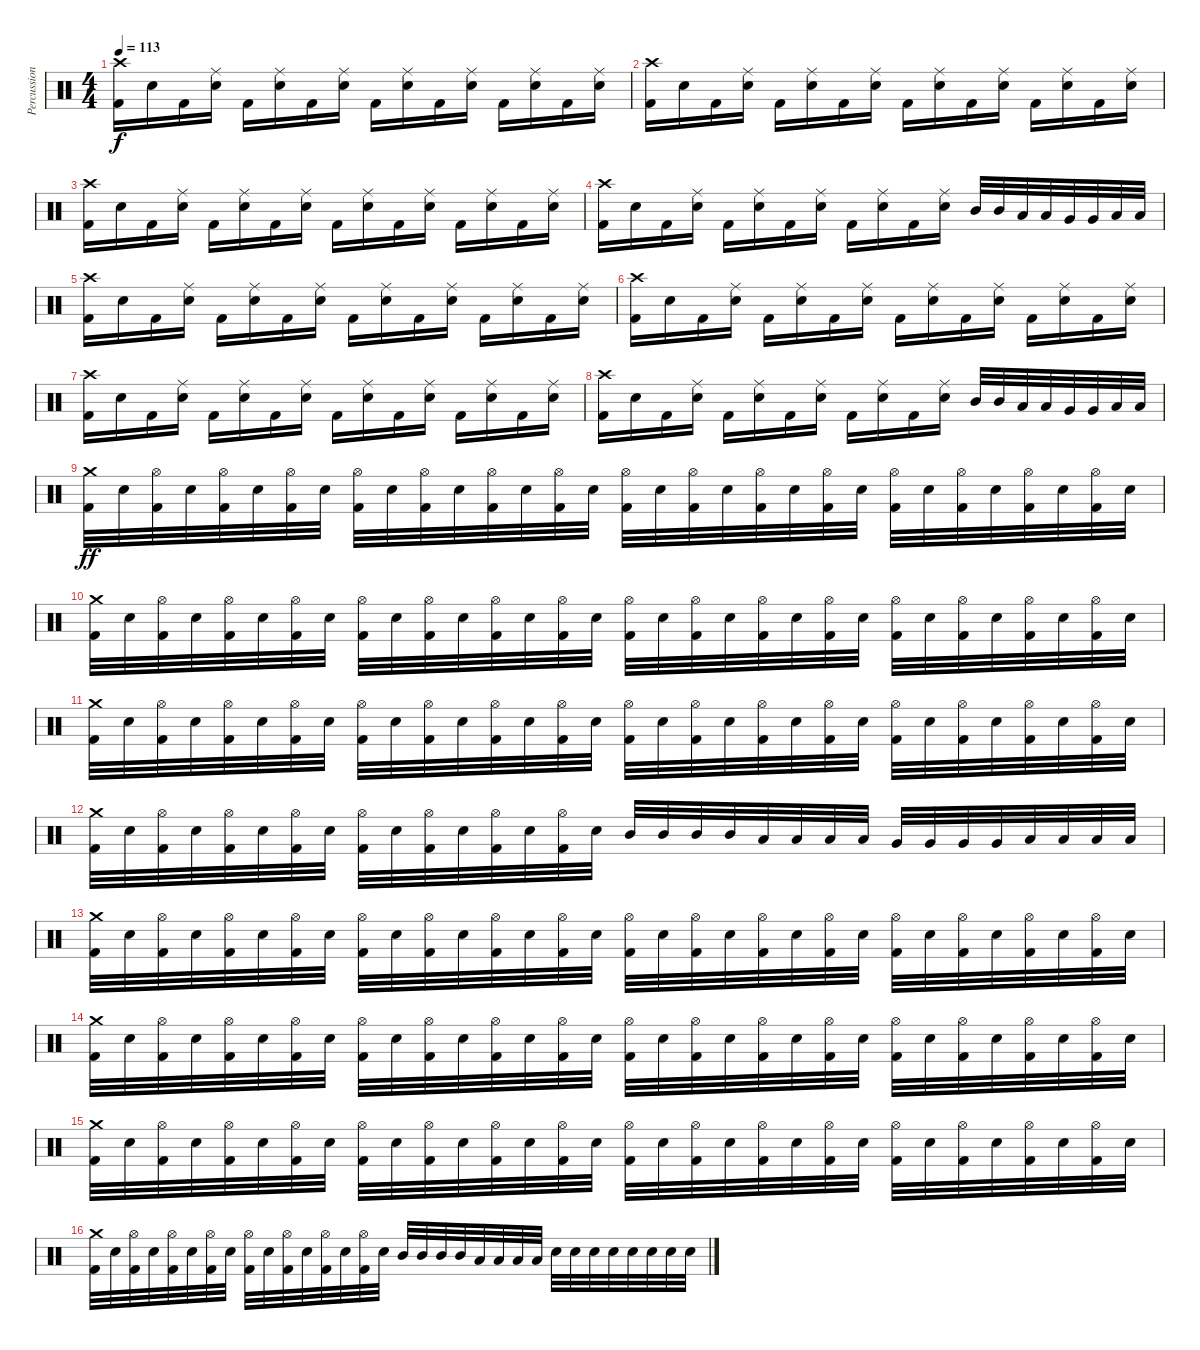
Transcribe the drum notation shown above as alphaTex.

\track ("Percussion" "Percussion") {instrument percussion}
\staff {score}
\articulation defaults
\ts (4 4)
\tempo 113
\clef neutral
\ks c
("Crash high (hit)" "Kick (hit) 2").16{dy f} "Electric Snare (hit)".16 "Kick (hit) 2".16 ("Ride (middle)" "Electric Snare (hit)").16 "Kick (hit) 2".16 ("Ride (middle)" "Electric Snare (hit)").16 "Kick (hit) 2".16 ("Ride (middle)" "Electric Snare (hit)").16 "Kick (hit) 2".16 ("Ride (middle)" "Electric Snare (hit)").16 "Kick (hit) 2".16 ("Ride (middle)" "Electric Snare (hit)").16 "Kick (hit) 2".16 ("Ride (middle)" "Electric Snare (hit)").16 "Kick (hit) 2".16 ("Ride (middle)" "Electric Snare (hit)").16 |
("Crash high (hit)" "Kick (hit) 2").16 "Electric Snare (hit)".16 "Kick (hit) 2".16 ("Ride (middle)" "Electric Snare (hit)").16 "Kick (hit) 2".16 ("Ride (middle)" "Electric Snare (hit)").16 "Kick (hit) 2".16 ("Ride (middle)" "Electric Snare (hit)").16 "Kick (hit) 2".16 ("Ride (middle)" "Electric Snare (hit)").16 "Kick (hit) 2".16 ("Ride (middle)" "Electric Snare (hit)").16 "Kick (hit) 2".16 ("Ride (middle)" "Electric Snare (hit)").16 "Kick (hit) 2".16 ("Ride (middle)" "Electric Snare (hit)").16 |
("Crash high (hit)" "Kick (hit) 2").16 "Electric Snare (hit)".16 "Kick (hit) 2".16 ("Ride (middle)" "Electric Snare (hit)").16 "Kick (hit) 2".16 ("Ride (middle)" "Electric Snare (hit)").16 "Kick (hit) 2".16 ("Ride (middle)" "Electric Snare (hit)").16 "Kick (hit) 2".16 ("Ride (middle)" "Electric Snare (hit)").16 "Kick (hit) 2".16 ("Ride (middle)" "Electric Snare (hit)").16 "Kick (hit) 2".16 ("Ride (middle)" "Electric Snare (hit)").16 "Kick (hit) 2".16 ("Ride (middle)" "Electric Snare (hit)").16 |
("Crash high (hit)" "Kick (hit) 2").16 "Electric Snare (hit)".16 "Kick (hit) 2".16 ("Ride (middle)" "Electric Snare (hit)").16 "Kick (hit) 2".16 ("Ride (middle)" "Electric Snare (hit)").16 "Kick (hit) 2".16 ("Ride (middle)" "Electric Snare (hit)").16 "Kick (hit) 2".16 ("Ride (middle)" "Electric Snare (hit)").16 "Kick (hit) 2".16 ("Ride (middle)" "Electric Snare (hit)").16 "Mid Tom (hit)".32 "Mid Tom (hit)".32 "Low Tom (hit)".32 "Low Tom (hit)".32 "Very Low Tom (hit)".32 "Very Low Tom (hit)".32 "Low Floor Tom (hit)".32 "Low Floor Tom (hit)".32 |
("Crash high (hit)" "Kick (hit) 2").16 "Electric Snare (hit)".16 "Kick (hit) 2".16 ("Ride (middle)" "Electric Snare (hit)").16 "Kick (hit) 2".16 ("Ride (middle)" "Electric Snare (hit)").16 "Kick (hit) 2".16 ("Ride (middle)" "Electric Snare (hit)").16 "Kick (hit) 2".16 ("Ride (middle)" "Electric Snare (hit)").16 "Kick (hit) 2".16 ("Ride (middle)" "Electric Snare (hit)").16 "Kick (hit) 2".16 ("Ride (middle)" "Electric Snare (hit)").16 "Kick (hit) 2".16 ("Ride (middle)" "Electric Snare (hit)").16 |
("Crash high (hit)" "Kick (hit) 2").16 "Electric Snare (hit)".16 "Kick (hit) 2".16 ("Ride (middle)" "Electric Snare (hit)").16 "Kick (hit) 2".16 ("Ride (middle)" "Electric Snare (hit)").16 "Kick (hit) 2".16 ("Ride (middle)" "Electric Snare (hit)").16 "Kick (hit) 2".16 ("Ride (middle)" "Electric Snare (hit)").16 "Kick (hit) 2".16 ("Ride (middle)" "Electric Snare (hit)").16 "Kick (hit) 2".16 ("Ride (middle)" "Electric Snare (hit)").16 "Kick (hit) 2".16 ("Ride (middle)" "Electric Snare (hit)").16 |
("Crash high (hit)" "Kick (hit) 2").16 "Electric Snare (hit)".16 "Kick (hit) 2".16 ("Ride (middle)" "Electric Snare (hit)").16 "Kick (hit) 2".16 ("Ride (middle)" "Electric Snare (hit)").16 "Kick (hit) 2".16 ("Ride (middle)" "Electric Snare (hit)").16 "Kick (hit) 2".16 ("Ride (middle)" "Electric Snare (hit)").16 "Kick (hit) 2".16 ("Ride (middle)" "Electric Snare (hit)").16 "Kick (hit) 2".16 ("Ride (middle)" "Electric Snare (hit)").16 "Kick (hit) 2".16 ("Ride (middle)" "Electric Snare (hit)").16 |
("Crash high (hit)" "Kick (hit) 2").16 "Electric Snare (hit)".16 "Kick (hit) 2".16 ("Ride (middle)" "Electric Snare (hit)").16 "Kick (hit) 2".16 ("Ride (middle)" "Electric Snare (hit)").16 "Kick (hit) 2".16 ("Ride (middle)" "Electric Snare (hit)").16 "Kick (hit) 2".16 ("Ride (middle)" "Electric Snare (hit)").16 "Kick (hit) 2".16 ("Ride (middle)" "Electric Snare (hit)").16 "Mid Tom (hit)".32 "Mid Tom (hit)".32 "Low Tom (hit)".32 "Low Tom (hit)".32 "Very Low Tom (hit)".32 "Very Low Tom (hit)".32 "Low Floor Tom (hit)".32 "Low Floor Tom (hit)".32 |
("Crash medium (hit)" "Kick (hit) 2").32{dy ff} "Electric Snare (hit)".32 ("Hi-Hat (open)" "Kick (hit) 2").32 "Electric Snare (hit)".32 ("Hi-Hat (open)" "Kick (hit) 2").32 "Electric Snare (hit)".32 ("Hi-Hat (open)" "Kick (hit) 2").32 "Electric Snare (hit)".32 ("Hi-Hat (open)" "Kick (hit) 2").32 "Electric Snare (hit)".32 ("Hi-Hat (open)" "Kick (hit) 2").32 "Electric Snare (hit)".32 ("Hi-Hat (open)" "Kick (hit) 2").32 "Electric Snare (hit)".32 ("Hi-Hat (open)" "Kick (hit) 2").32 "Electric Snare (hit)".32 ("Hi-Hat (open)" "Kick (hit) 2").32 "Electric Snare (hit)".32 ("Hi-Hat (open)" "Kick (hit) 2").32 "Electric Snare (hit)".32 ("Hi-Hat (open)" "Kick (hit) 2").32 "Electric Snare (hit)".32 ("Hi-Hat (open)" "Kick (hit) 2").32 "Electric Snare (hit)".32 ("Hi-Hat (open)" "Kick (hit) 2").32 "Electric Snare (hit)".32 ("Hi-Hat (open)" "Kick (hit) 2").32 "Electric Snare (hit)".32 ("Hi-Hat (open)" "Kick (hit) 2").32 "Electric Snare (hit)".32 ("Hi-Hat (open)" "Kick (hit) 2").32 "Electric Snare (hit)".32 |
("Crash medium (hit)" "Kick (hit) 2").32 "Electric Snare (hit)".32 ("Hi-Hat (open)" "Kick (hit) 2").32 "Electric Snare (hit)".32 ("Hi-Hat (open)" "Kick (hit) 2").32 "Electric Snare (hit)".32 ("Hi-Hat (open)" "Kick (hit) 2").32 "Electric Snare (hit)".32 ("Hi-Hat (open)" "Kick (hit) 2").32 "Electric Snare (hit)".32 ("Hi-Hat (open)" "Kick (hit) 2").32 "Electric Snare (hit)".32 ("Hi-Hat (open)" "Kick (hit) 2").32 "Electric Snare (hit)".32 ("Hi-Hat (open)" "Kick (hit) 2").32 "Electric Snare (hit)".32 ("Hi-Hat (open)" "Kick (hit) 2").32 "Electric Snare (hit)".32 ("Hi-Hat (open)" "Kick (hit) 2").32 "Electric Snare (hit)".32 ("Hi-Hat (open)" "Kick (hit) 2").32 "Electric Snare (hit)".32 ("Hi-Hat (open)" "Kick (hit) 2").32 "Electric Snare (hit)".32 ("Hi-Hat (open)" "Kick (hit) 2").32 "Electric Snare (hit)".32 ("Hi-Hat (open)" "Kick (hit) 2").32 "Electric Snare (hit)".32 ("Hi-Hat (open)" "Kick (hit) 2").32 "Electric Snare (hit)".32 ("Hi-Hat (open)" "Kick (hit) 2").32 "Electric Snare (hit)".32 |
("Crash medium (hit)" "Kick (hit) 2").32 "Electric Snare (hit)".32 ("Hi-Hat (open)" "Kick (hit) 2").32 "Electric Snare (hit)".32 ("Hi-Hat (open)" "Kick (hit) 2").32 "Electric Snare (hit)".32 ("Hi-Hat (open)" "Kick (hit) 2").32 "Electric Snare (hit)".32 ("Hi-Hat (open)" "Kick (hit) 2").32 "Electric Snare (hit)".32 ("Hi-Hat (open)" "Kick (hit) 2").32 "Electric Snare (hit)".32 ("Hi-Hat (open)" "Kick (hit) 2").32 "Electric Snare (hit)".32 ("Hi-Hat (open)" "Kick (hit) 2").32 "Electric Snare (hit)".32 ("Hi-Hat (open)" "Kick (hit) 2").32 "Electric Snare (hit)".32 ("Hi-Hat (open)" "Kick (hit) 2").32 "Electric Snare (hit)".32 ("Hi-Hat (open)" "Kick (hit) 2").32 "Electric Snare (hit)".32 ("Hi-Hat (open)" "Kick (hit) 2").32 "Electric Snare (hit)".32 ("Hi-Hat (open)" "Kick (hit) 2").32 "Electric Snare (hit)".32 ("Hi-Hat (open)" "Kick (hit) 2").32 "Electric Snare (hit)".32 ("Hi-Hat (open)" "Kick (hit) 2").32 "Electric Snare (hit)".32 ("Hi-Hat (open)" "Kick (hit) 2").32 "Electric Snare (hit)".32 |
("Crash medium (hit)" "Kick (hit) 2").32 "Electric Snare (hit)".32 ("Hi-Hat (open)" "Kick (hit) 2").32 "Electric Snare (hit)".32 ("Hi-Hat (open)" "Kick (hit) 2").32 "Electric Snare (hit)".32 ("Hi-Hat (open)" "Kick (hit) 2").32 "Electric Snare (hit)".32 ("Hi-Hat (open)" "Kick (hit) 2").32 "Electric Snare (hit)".32 ("Hi-Hat (open)" "Kick (hit) 2").32 "Electric Snare (hit)".32 ("Hi-Hat (open)" "Kick (hit) 2").32 "Electric Snare (hit)".32 ("Hi-Hat (open)" "Kick (hit) 2").32 "Electric Snare (hit)".32 "Mid Tom (hit)".32 "Mid Tom (hit)".32 "Mid Tom (hit)".32 "Mid Tom (hit)".32 "Low Tom (hit)".32 "Low Tom (hit)".32 "Low Tom (hit)".32 "Low Tom (hit)".32 "Very Low Tom (hit)".32 "Very Low Tom (hit)".32 "Very Low Tom (hit)".32 "Very Low Tom (hit)".32 "Low Floor Tom (hit)".32 "Low Floor Tom (hit)".32 "Low Floor Tom (hit)".32 "Low Floor Tom (hit)".32 |
("Crash medium (hit)" "Kick (hit) 2").32 "Electric Snare (hit)".32 ("Hi-Hat (open)" "Kick (hit) 2").32 "Electric Snare (hit)".32 ("Hi-Hat (open)" "Kick (hit) 2").32 "Electric Snare (hit)".32 ("Hi-Hat (open)" "Kick (hit) 2").32 "Electric Snare (hit)".32 ("Hi-Hat (open)" "Kick (hit) 2").32 "Electric Snare (hit)".32 ("Hi-Hat (open)" "Kick (hit) 2").32 "Electric Snare (hit)".32 ("Hi-Hat (open)" "Kick (hit) 2").32 "Electric Snare (hit)".32 ("Hi-Hat (open)" "Kick (hit) 2").32 "Electric Snare (hit)".32 ("Hi-Hat (open)" "Kick (hit) 2").32 "Electric Snare (hit)".32 ("Hi-Hat (open)" "Kick (hit) 2").32 "Electric Snare (hit)".32 ("Hi-Hat (open)" "Kick (hit) 2").32 "Electric Snare (hit)".32 ("Hi-Hat (open)" "Kick (hit) 2").32 "Electric Snare (hit)".32 ("Hi-Hat (open)" "Kick (hit) 2").32 "Electric Snare (hit)".32 ("Hi-Hat (open)" "Kick (hit) 2").32 "Electric Snare (hit)".32 ("Hi-Hat (open)" "Kick (hit) 2").32 "Electric Snare (hit)".32 ("Hi-Hat (open)" "Kick (hit) 2").32 "Electric Snare (hit)".32 |
("Crash medium (hit)" "Kick (hit) 2").32 "Electric Snare (hit)".32 ("Hi-Hat (open)" "Kick (hit) 2").32 "Electric Snare (hit)".32 ("Hi-Hat (open)" "Kick (hit) 2").32 "Electric Snare (hit)".32 ("Hi-Hat (open)" "Kick (hit) 2").32 "Electric Snare (hit)".32 ("Hi-Hat (open)" "Kick (hit) 2").32 "Electric Snare (hit)".32 ("Hi-Hat (open)" "Kick (hit) 2").32 "Electric Snare (hit)".32 ("Hi-Hat (open)" "Kick (hit) 2").32 "Electric Snare (hit)".32 ("Hi-Hat (open)" "Kick (hit) 2").32 "Electric Snare (hit)".32 ("Hi-Hat (open)" "Kick (hit) 2").32 "Electric Snare (hit)".32 ("Hi-Hat (open)" "Kick (hit) 2").32 "Electric Snare (hit)".32 ("Hi-Hat (open)" "Kick (hit) 2").32 "Electric Snare (hit)".32 ("Hi-Hat (open)" "Kick (hit) 2").32 "Electric Snare (hit)".32 ("Hi-Hat (open)" "Kick (hit) 2").32 "Electric Snare (hit)".32 ("Hi-Hat (open)" "Kick (hit) 2").32 "Electric Snare (hit)".32 ("Hi-Hat (open)" "Kick (hit) 2").32 "Electric Snare (hit)".32 ("Hi-Hat (open)" "Kick (hit) 2").32 "Electric Snare (hit)".32 |
("Crash medium (hit)" "Kick (hit) 2").32 "Electric Snare (hit)".32 ("Hi-Hat (open)" "Kick (hit) 2").32 "Electric Snare (hit)".32 ("Hi-Hat (open)" "Kick (hit) 2").32 "Electric Snare (hit)".32 ("Hi-Hat (open)" "Kick (hit) 2").32 "Electric Snare (hit)".32 ("Hi-Hat (open)" "Kick (hit) 2").32 "Electric Snare (hit)".32 ("Hi-Hat (open)" "Kick (hit) 2").32 "Electric Snare (hit)".32 ("Hi-Hat (open)" "Kick (hit) 2").32 "Electric Snare (hit)".32 ("Hi-Hat (open)" "Kick (hit) 2").32 "Electric Snare (hit)".32 ("Hi-Hat (open)" "Kick (hit) 2").32 "Electric Snare (hit)".32 ("Hi-Hat (open)" "Kick (hit) 2").32 "Electric Snare (hit)".32 ("Hi-Hat (open)" "Kick (hit) 2").32 "Electric Snare (hit)".32 ("Hi-Hat (open)" "Kick (hit) 2").32 "Electric Snare (hit)".32 ("Hi-Hat (open)" "Kick (hit) 2").32 "Electric Snare (hit)".32 ("Hi-Hat (open)" "Kick (hit) 2").32 "Electric Snare (hit)".32 ("Hi-Hat (open)" "Kick (hit) 2").32 "Electric Snare (hit)".32 ("Hi-Hat (open)" "Kick (hit) 2").32 "Electric Snare (hit)".32 |
("Crash medium (hit)" "Kick (hit) 2").32 "Electric Snare (hit)".32 ("Hi-Hat (open)" "Kick (hit) 2").32 "Electric Snare (hit)".32 ("Hi-Hat (open)" "Kick (hit) 2").32 "Electric Snare (hit)".32 ("Hi-Hat (open)" "Kick (hit) 2").32 "Electric Snare (hit)".32 ("Hi-Hat (open)" "Kick (hit) 2").32 "Electric Snare (hit)".32 ("Hi-Hat (open)" "Kick (hit) 2").32 "Electric Snare (hit)".32 ("Hi-Hat (open)" "Kick (hit) 2").32 "Electric Snare (hit)".32 ("Hi-Hat (open)" "Kick (hit) 2").32 "Electric Snare (hit)".32 "Mid Tom (hit)".32 "Mid Tom (hit)".32 "Mid Tom (hit)".32 "Mid Tom (hit)".32 "Low Tom (hit)".32 "Low Tom (hit)".32 "Low Tom (hit)".32 "Low Tom (hit)".32 "Electric Snare (hit)".32 "Electric Snare (hit)".32 "Electric Snare (hit)".32 "Electric Snare (hit)".32 "Electric Snare (hit)".32 "Electric Snare (hit)".32 "Electric Snare (hit)".32 "Electric Snare (hit)".32
